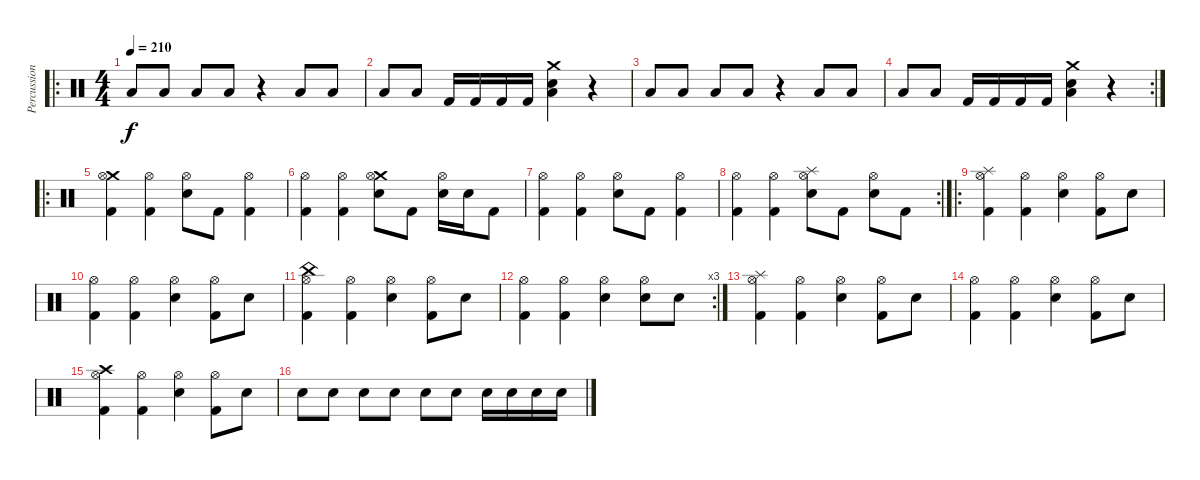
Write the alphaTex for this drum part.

\track ("Percussion" "Percussion") {instrument percussion}
\staff {score}
\articulation defaults
\ro
\ts (4 4)
\tempo 210
\clef neutral
\ks c "Low Floor Tom (hit)".8{dy f} "Low Floor Tom (hit)".8 "Low Floor Tom (hit)".8 "Low Floor Tom (hit)".8
r.4 "Low Floor Tom (hit)".8 "Low Floor Tom (hit)".8 |
"Low Floor Tom (hit)".8 "Low Floor Tom (hit)".8 "Kick (hit) 2".16 "Kick (hit) 2".16 "Kick (hit) 2".16 "Kick (hit) 2".16 ("Snare (hit) 2" "Crash medium (hit)" "Low Floor Tom (hit)").4 r.4 |
"Low Floor Tom (hit)".8 "Low Floor Tom (hit)".8 "Low Floor Tom (hit)".8 "Low Floor Tom (hit)".8 r.4 "Low Floor Tom (hit)".8 "Low Floor Tom (hit)".8 |
\rc 2 "Low Floor Tom (hit)".8 "Low Floor Tom (hit)".8 "Kick (hit) 2".16 "Kick (hit) 2".16 "Kick (hit) 2".16 "Kick (hit) 2".16
("Snare (hit) 2" "Crash medium (hit)" "Low Floor Tom (hit)").4 r.4 |
\ro
("Kick (hit) 2" "Crash medium (hit)" "Hi-Hat (open)").4 ("Kick (hit) 2" "Hi-Hat (open)").4 ("Snare (hit) 2" "Hi-Hat (open)").8 "Kick (hit) 2".8 ("Kick (hit) 2" "Hi-Hat (open)").4 |
("Kick (hit) 2" "Hi-Hat (open)").4 ("Kick (hit) 2" "Hi-Hat (open)").4 ("Snare (hit) 2" "Crash medium (hit)" "Hi-Hat (open)").8 "Kick (hit) 2".8 ("Snare (hit) 2" "Hi-Hat (open)").16 "Snare (hit) 2".16 "Kick (hit) 2".8 |
("Kick (hit) 2" "Hi-Hat (open)").4 ("Kick (hit) 2" "Hi-Hat (open)").4 ("Snare (hit) 2" "Hi-Hat (open)").8 "Kick (hit) 2".8 ("Kick (hit) 2" "Hi-Hat (open)").4 |
\rc 2
("Kick (hit) 2" "Hi-Hat (open)").4 ("Kick (hit) 2" "Hi-Hat (open)").4 ("Snare (hit) 2" "Splash (hit)" "Hi-Hat (open)").8 "Kick (hit) 2".8 ("Snare (hit) 2" "Hi-Hat (open)").8 "Kick (hit) 2".8 |
\ro
("Hi-Hat (open)" "Kick (hit) 2" "Splash (hit)").4 ("Hi-Hat (open)" "Kick (hit) 2").4 ("Hi-Hat (open)" "Snare (hit) 2").4 ("Hi-Hat (open)" "Kick (hit) 2").8 "Snare (hit) 2".8 |
("Hi-Hat (open)" "Kick (hit) 2").4 ("Hi-Hat (open)" "Kick (hit) 2").4 ("Hi-Hat (open)" "Snare (hit) 2").4 ("Hi-Hat (open)" "Kick (hit) 2").8 "Snare (hit) 2".8 |
("Hi-Hat (open)" "Kick (hit) 2" "China (hit)").4 ("Hi-Hat (open)" "Kick (hit) 2").4 ("Hi-Hat (open)" "Snare (hit) 2").4 ("Hi-Hat (open)" "Kick (hit) 2").8 "Snare (hit) 2".8 |
\rc 3
("Hi-Hat (open)" "Kick (hit) 2").4 ("Hi-Hat (open)" "Kick (hit) 2").4 ("Hi-Hat (open)" "Snare (hit) 2").4 ("Hi-Hat (open)" "Snare (hit) 2").8 "Snare (hit) 2".8 |
("Hi-Hat (open)" "Kick (hit) 2" "Splash (hit)").4 ("Hi-Hat (open)" "Kick (hit) 2").4 ("Hi-Hat (open)" "Snare (hit) 2").4 ("Hi-Hat (open)" "Kick (hit) 2").8 "Snare (hit) 2".8 |
("Hi-Hat (open)" "Kick (hit) 2").4 ("Hi-Hat (open)" "Kick (hit) 2").4 ("Hi-Hat (open)" "Snare (hit) 2").4 ("Hi-Hat (open)" "Kick (hit) 2").8 "Snare (hit) 2".8 |
("Hi-Hat (open)" "Kick (hit) 2" "Crash high (hit)").4 ("Hi-Hat (open)" "Kick (hit) 2").4 ("Hi-Hat (open)" "Snare (hit) 2").4 ("Hi-Hat (open)" "Kick (hit) 2").8 "Snare (hit) 2".8 |
"Snare (hit) 2".8 "Snare (hit) 2".8 "Snare (hit) 2".8 "Snare (hit) 2".8 "Snare (hit) 2".8 "Snare (hit) 2".8 "Snare (hit) 2".16 "Snare (hit) 2".16 "Snare (hit) 2".16 "Snare (hit) 2".16
